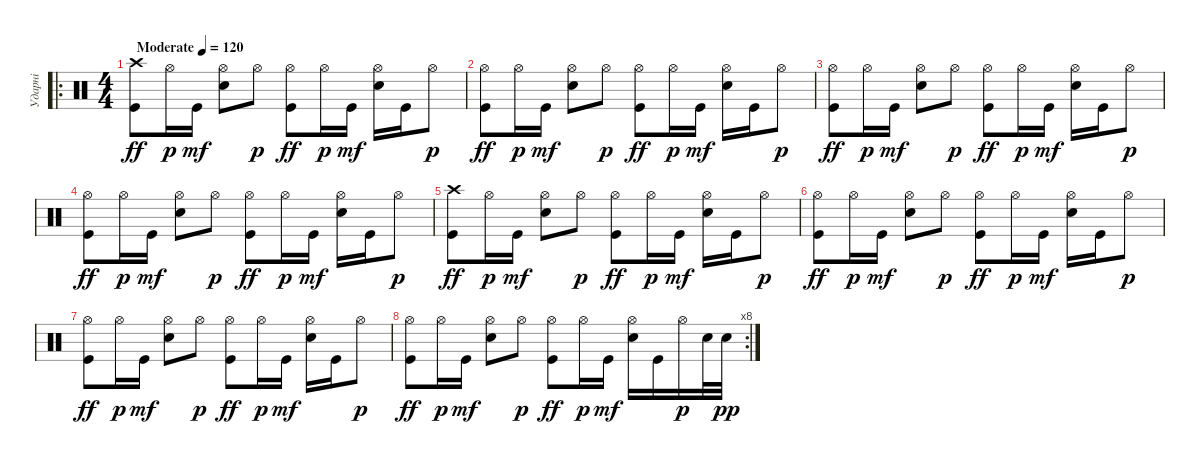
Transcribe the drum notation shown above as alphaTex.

\track ("Ударні" "Ударні") {instrument percussion}
\staff {score}
\articulation defaults
\ro
\ts (4 4)
\tempo (120 "Moderate")
\clef neutral
\ks c
("Crash high (hit)" "Kick (hit)").8{dy ff} "Hi-Hat (open)".16{dy p} "Kick (hit)".16{dy mf} ("Hi-Hat (open)" "Snare (hit) 2").8 "Hi-Hat (open)".8{dy p} ("Hi-Hat (open)" "Kick (hit)").8{dy ff} "Hi-Hat (open)".16{dy p} "Kick (hit)".16{dy mf} ("Hi-Hat (open)" "Snare (hit) 2").16 "Kick (hit)".16 "Hi-Hat (open)".8{dy p} |
("Hi-Hat (open)" "Kick (hit)").8{dy ff} "Hi-Hat (open)".16{dy p} "Kick (hit)".16{dy mf} ("Hi-Hat (open)" "Snare (hit) 2").8 "Hi-Hat (open)".8{dy p} ("Hi-Hat (open)" "Kick (hit)").8{dy ff} "Hi-Hat (open)".16{dy p} "Kick (hit)".16{dy mf} ("Hi-Hat (open)" "Snare (hit) 2").16 "Kick (hit)".16 "Hi-Hat (open)".8{dy p} |
("Hi-Hat (open)" "Kick (hit)").8{dy ff} "Hi-Hat (open)".16{dy p} "Kick (hit)".16{dy mf} ("Hi-Hat (open)" "Snare (hit) 2").8 "Hi-Hat (open)".8{dy p} ("Hi-Hat (open)" "Kick (hit)").8{dy ff} "Hi-Hat (open)".16{dy p} "Kick (hit)".16{dy mf} ("Hi-Hat (open)" "Snare (hit) 2").16 "Kick (hit)".16 "Hi-Hat (open)".8{dy p} |
("Hi-Hat (open)" "Kick (hit)").8{dy ff} "Hi-Hat (open)".16{dy p} "Kick (hit)".16{dy mf} ("Hi-Hat (open)" "Snare (hit) 2").8 "Hi-Hat (open)".8{dy p} ("Hi-Hat (open)" "Kick (hit)").8{dy ff} "Hi-Hat (open)".16{dy p} "Kick (hit)".16{dy mf} ("Hi-Hat (open)" "Snare (hit) 2").16 "Kick (hit)".16 "Hi-Hat (open)".8{dy p} |
("Crash high (hit)" "Kick (hit)").8{dy ff} "Hi-Hat (open)".16{dy p} "Kick (hit)".16{dy mf} ("Hi-Hat (open)" "Snare (hit) 2").8 "Hi-Hat (open)".8{dy p} ("Hi-Hat (open)" "Kick (hit)").8{dy ff} "Hi-Hat (open)".16{dy p} "Kick (hit)".16{dy mf} ("Hi-Hat (open)" "Snare (hit) 2").16 "Kick (hit)".16 "Hi-Hat (open)".8{dy p} |
("Hi-Hat (open)" "Kick (hit)").8{dy ff} "Hi-Hat (open)".16{dy p} "Kick (hit)".16{dy mf} ("Hi-Hat (open)" "Snare (hit) 2").8 "Hi-Hat (open)".8{dy p} ("Hi-Hat (open)" "Kick (hit)").8{dy ff} "Hi-Hat (open)".16{dy p} "Kick (hit)".16{dy mf} ("Hi-Hat (open)" "Snare (hit) 2").16 "Kick (hit)".16 "Hi-Hat (open)".8{dy p} |
("Hi-Hat (open)" "Kick (hit)").8{dy ff} "Hi-Hat (open)".16{dy p} "Kick (hit)".16{dy mf} ("Hi-Hat (open)" "Snare (hit) 2").8 "Hi-Hat (open)".8{dy p} ("Hi-Hat (open)" "Kick (hit)").8{dy ff} "Hi-Hat (open)".16{dy p} "Kick (hit)".16{dy mf} ("Hi-Hat (open)" "Snare (hit) 2").16 "Kick (hit)".16 "Hi-Hat (open)".8{dy p} |
\rc 8
("Hi-Hat (open)" "Kick (hit)").8{dy ff} "Hi-Hat (open)".16{dy p} "Kick (hit)".16{dy mf} ("Hi-Hat (open)" "Snare (hit) 2").8 "Hi-Hat (open)".8{dy p} ("Hi-Hat (open)" "Kick (hit)").8{dy ff} "Hi-Hat (open)".16{dy p} "Kick (hit)".16{dy mf} ("Hi-Hat (open)" "Snare (hit) 2").16 "Kick (hit)".16 "Hi-Hat (open)".16{dy p} "Snare (hit) 2".32 "Snare (hit) 2".32{dy pp}
